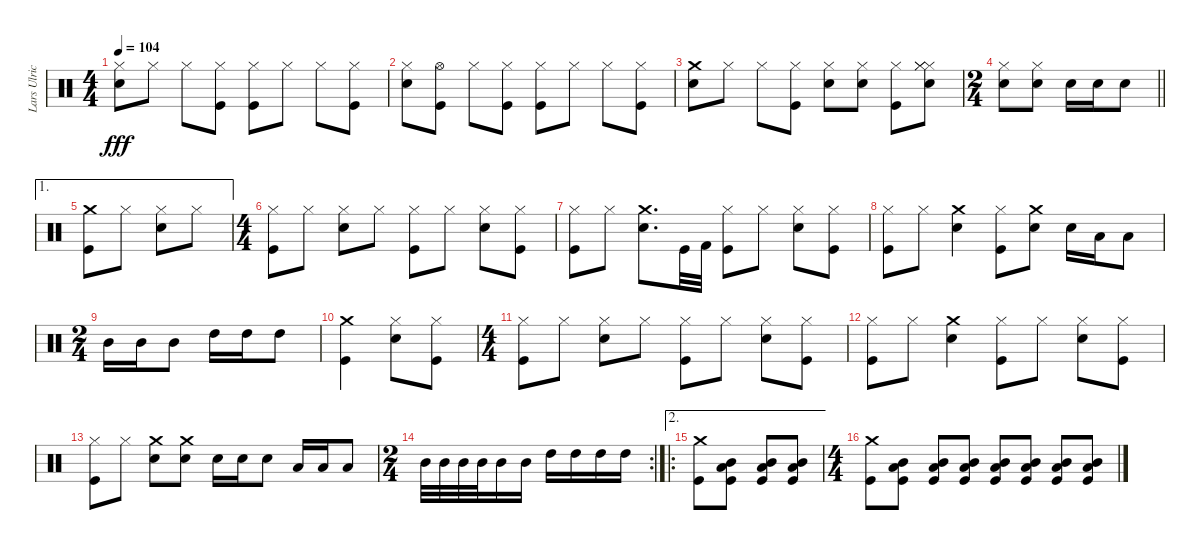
\track ("Lars Ulrich" "Lars Ulric") {instrument percussion}
\staff {score}
\articulation defaults
\ts (4 4)
\tempo 104
\clef neutral
\ks c
("Snare (hit) 2" "Hi-Hat (closed)").8{dy fff} "Hi-Hat (closed)".8 "Hi-Hat (closed)".8 ("Kick (hit)" "Hi-Hat (closed)").8 ("Hi-Hat (closed)" "Kick (hit)").8 "Hi-Hat (closed)".8 "Hi-Hat (closed)".8 ("Kick (hit)" "Hi-Hat (closed)").8 |
("Snare (hit) 2" "Hi-Hat (closed)").8 ("Kick (hit)" "Hi-Hat (open)").8 "Hi-Hat (closed)".8 ("Kick (hit)" "Hi-Hat (closed)").8 ("Hi-Hat (closed)" "Kick (hit)").8 "Hi-Hat (closed)".8 "Hi-Hat (closed)".8 ("Kick (hit)" "Hi-Hat (closed)").8 |
("Snare (hit) 2" "Crash medium (hit)").8 "Hi-Hat (closed)".8 "Hi-Hat (closed)".8 ("Kick (hit)" "Hi-Hat (closed)").8 ("Snare (hit) 2" "Hi-Hat (closed)").8 ("Snare (hit) 2" "Hi-Hat (closed)").8 ("Hi-Hat (closed)" "Kick (hit)").8 ("Hi-Hat (closed)" "Snare (hit) 2" "Hi-Hat (closed)" "Hi-Hat (closed)").8 |
\ts (2 4)
\barLineRight lightlight
("Snare (hit) 2" "Hi-Hat (closed)").8 ("Snare (hit) 2" "Hi-Hat (closed)").8 "Snare (hit) 2".16 "Snare (hit) 2".16 "Snare (hit) 2".8 |
\ae 1
("Kick (hit)" "Crash medium (hit)").8 "Hi-Hat (closed)".8 ("Snare (hit) 2" "Hi-Hat (closed)").8 "Hi-Hat (closed)".8 |
\ts (4 4)
("Kick (hit)" "Hi-Hat (closed)").8 "Hi-Hat (closed)".8 ("Snare (hit) 2" "Hi-Hat (closed)").8 "Hi-Hat (closed)".8 ("Hi-Hat (closed)" "Kick (hit)").8 "Hi-Hat (closed)".8 ("Snare (hit) 2" "Hi-Hat (closed)").8 ("Kick (hit)" "Hi-Hat (closed)").8 |
("Hi-Hat (closed)" "Kick (hit)").8 "Hi-Hat (closed)".8 ("Snare (hit) 2" "Crash medium (hit)").8{d} "Kick (hit)".32 "Kick (hit) 2".32 ("Hi-Hat (closed)" "Kick (hit)").8 "Hi-Hat (closed)".8 ("Snare (hit) 2" "Hi-Hat (closed)").8 ("Kick (hit)" "Hi-Hat (closed)").8 |
("Kick (hit)" "Hi-Hat (closed)").8 "Hi-Hat (closed)".8 ("Snare (hit) 2" "Crash medium (hit)").4 ("Kick (hit)" "Hi-Hat (closed)").8 ("Crash medium (hit)" "Snare (hit) 2").8 "Snare (hit) 2".16 "Low Tom (hit)".16 "Low Tom (hit)".8 |
\ts (2 4)
"Mid Tom (hit)".16 "Mid Tom (hit)".16 "Mid Tom (hit)".8 "High Tom (hit)".16 "High Tom (hit)".16 "High Tom (hit)".8 |
("Kick (hit)" "Crash medium (hit)").4 ("Snare (hit) 2" "Hi-Hat (closed)").8 ("Hi-Hat (closed)" "Kick (hit)").8 |
\ts (4 4)
("Kick (hit)" "Hi-Hat (closed)").8 "Hi-Hat (closed)".8 ("Snare (hit) 2" "Hi-Hat (closed)").8 "Hi-Hat (closed)".8 ("Kick (hit)" "Hi-Hat (closed)").8 "Hi-Hat (closed)".8 ("Hi-Hat (closed)" "Snare (hit) 2").8 ("Kick (hit)" "Hi-Hat (closed)").8 |
("Hi-Hat (closed)" "Kick (hit)").8 "Hi-Hat (closed)".8 ("Crash medium (hit)" "Snare (hit) 2").4 ("Hi-Hat (closed)" "Kick (hit)").8 "Hi-Hat (closed)".8 ("Hi-Hat (closed)" "Snare (hit) 2").8 ("Hi-Hat (closed)" "Kick (hit)").8 |
("Kick (hit)" "Hi-Hat (closed)").8 "Hi-Hat (closed)".8 ("Snare (hit) 2" "Crash medium (hit)").8 ("Snare (hit) 2" "Crash medium (hit)").8 "Snare (hit) 2".16 "Snare (hit) 2".16 "Snare (hit) 2".8 "Low Tom (hit)".16 "Low Tom (hit)".16 "Low Tom (hit)".8 |
\rc 2
\ts (2 4)
"Mid Tom (hit)".32 "Mid Tom (hit)".32 "Mid Tom (hit)".32 "Mid Tom (hit)".32 "Mid Tom (hit)".16 "Mid Tom (hit)".16 "High Tom (hit)".16 "High Tom (hit)".16 "High Tom (hit)".16 "High Tom (hit)".16 |
\ae 2
\ro
("Kick (hit)" "Crash medium (hit)").8{volume 11} ("Kick (hit)" "Low Tom (hit)" "Mid Tom (hit)").8 ("Kick (hit)" "Mid Tom (hit)" "Low Tom (hit)").8 ("Kick (hit)" "Mid Tom (hit)" "Low Tom (hit)").8 |
\ts (4 4)
("Crash medium (hit)" "Kick (hit)").8 ("Low Tom (hit)" "Kick (hit)" "Mid Tom (hit)").8 ("Kick (hit)" "Mid Tom (hit)" "Low Tom (hit)").8 ("Kick (hit)" "Mid Tom (hit)" "Low Tom (hit)").8 ("Kick (hit)" "Mid Tom (hit)" "Low Tom (hit)").8 ("Mid Tom (hit)" "Kick (hit)" "Low Tom (hit)").8 ("Kick (hit)" "Mid Tom (hit)" "Low Tom (hit)").8 ("Kick (hit)" "Mid Tom (hit)" "Low Tom (hit)").8
